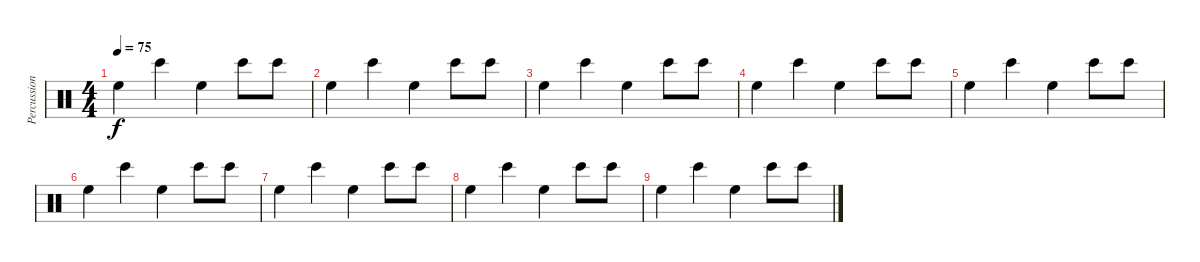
\track ("Percussions" "Percussion") {instrument percussion}
\staff {score}
\articulation defaults
\ts (4 4)
\tempo 75
\clef neutral
\ks c "High Floor Tom (hit)".4{dy f} "Bongo High (hit)".4 "High Floor Tom (hit)".4 "Bongo High (hit)".8 "Bongo High (hit)".8
|
"High Floor Tom (hit)".4 "Bongo High (hit)".4 "High Floor Tom (hit)".4 "Bongo High (hit)".8 "Bongo High (hit)".8 |
"High Floor Tom (hit)".4 "Bongo High (hit)".4 "High Floor Tom (hit)".4 "Bongo High (hit)".8 "Bongo High (hit)".8 |
"High Floor Tom (hit)".4 "Bongo High (hit)".4 "High Floor Tom (hit)".4 "Bongo High (hit)".8 "Bongo High (hit)".8 |
"High Floor Tom (hit)".4 "Bongo High (hit)".4 "High Floor Tom (hit)".4 "Bongo High (hit)".8 "Bongo High (hit)".8 |
"High Floor Tom (hit)".4 "Bongo High (hit)".4 "High Floor Tom (hit)".4 "Bongo High (hit)".8 "Bongo High (hit)".8 |
"High Floor Tom (hit)".4 "Bongo High (hit)".4 "High Floor Tom (hit)".4 "Bongo High (hit)".8 "Bongo High (hit)".8 |
"High Floor Tom (hit)".4 "Bongo High (hit)".4 "High Floor Tom (hit)".4 "Bongo High (hit)".8 "Bongo High (hit)".8 |
"High Floor Tom (hit)".4 "Bongo High (hit)".4 "High Floor Tom (hit)".4 "Bongo High (hit)".8 "Bongo High (hit)".8
